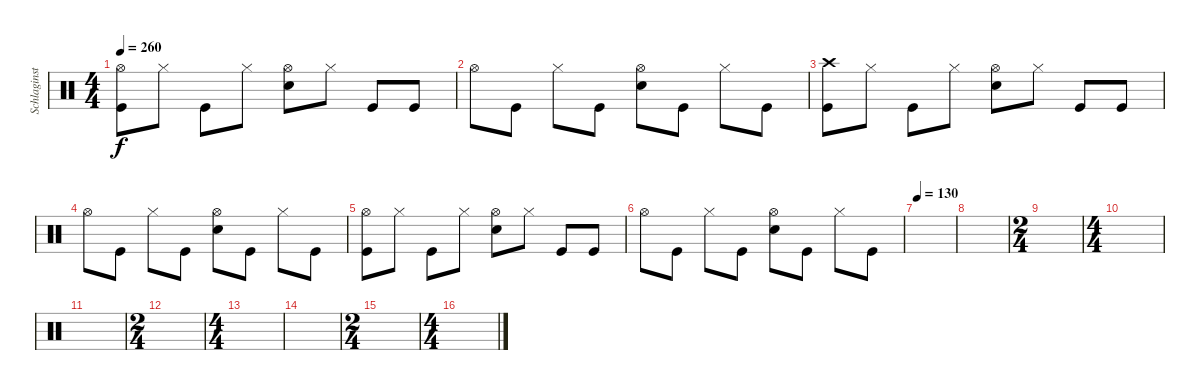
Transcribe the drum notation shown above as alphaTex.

\track ("Schlaginstrumente - Auswahl" "Schlaginst") {instrument percussion}
\staff {score}
\articulation defaults
\ts (4 4)
\tempo 260
\clef neutral
\ks c
("Hi-Hat (open)" "Kick (hit)").8{dy f} "Hi-Hat (closed)".8 "Kick (hit)".8 "Hi-Hat (closed)".8 ("Hi-Hat (open)" "Electric Snare (hit)").8 "Hi-Hat (closed)".8 "Kick (hit)".8 "Kick (hit)".8 |
"Hi-Hat (open)".8 "Kick (hit)".8 "Hi-Hat (closed)".8 "Kick (hit)".8 ("Hi-Hat (open)" "Electric Snare (hit)").8 "Kick (hit)".8 "Hi-Hat (closed)".8 "Kick (hit)".8 |
("Crash high (hit)" "Kick (hit)").8 "Hi-Hat (closed)".8 "Kick (hit)".8 "Hi-Hat (closed)".8 ("Hi-Hat (open)" "Electric Snare (hit)").8 "Hi-Hat (closed)".8 "Kick (hit)".8 "Kick (hit)".8 |
"Hi-Hat (open)".8 "Kick (hit)".8 "Hi-Hat (closed)".8 "Kick (hit)".8 ("Hi-Hat (open)" "Electric Snare (hit)").8 "Kick (hit)".8 "Hi-Hat (closed)".8 "Kick (hit)".8 |
("Hi-Hat (open)" "Kick (hit)").8 "Hi-Hat (closed)".8 "Kick (hit)".8 "Hi-Hat (closed)".8 ("Hi-Hat (open)" "Electric Snare (hit)").8 "Hi-Hat (closed)".8 "Kick (hit)".8 "Kick (hit)".8 |
"Hi-Hat (open)".8 "Kick (hit)".8 "Hi-Hat (closed)".8 "Kick (hit)".8 ("Hi-Hat (open)" "Electric Snare (hit)").8 "Kick (hit)".8 "Hi-Hat (closed)".8 "Kick (hit)".8 |
\tempo 130
|
|
\ts (2 4)
|
\ts (4 4)
|
|
\ts (2 4)
|
\ts (4 4)
|
|
\ts (2 4)
|
\ts (4 4)
